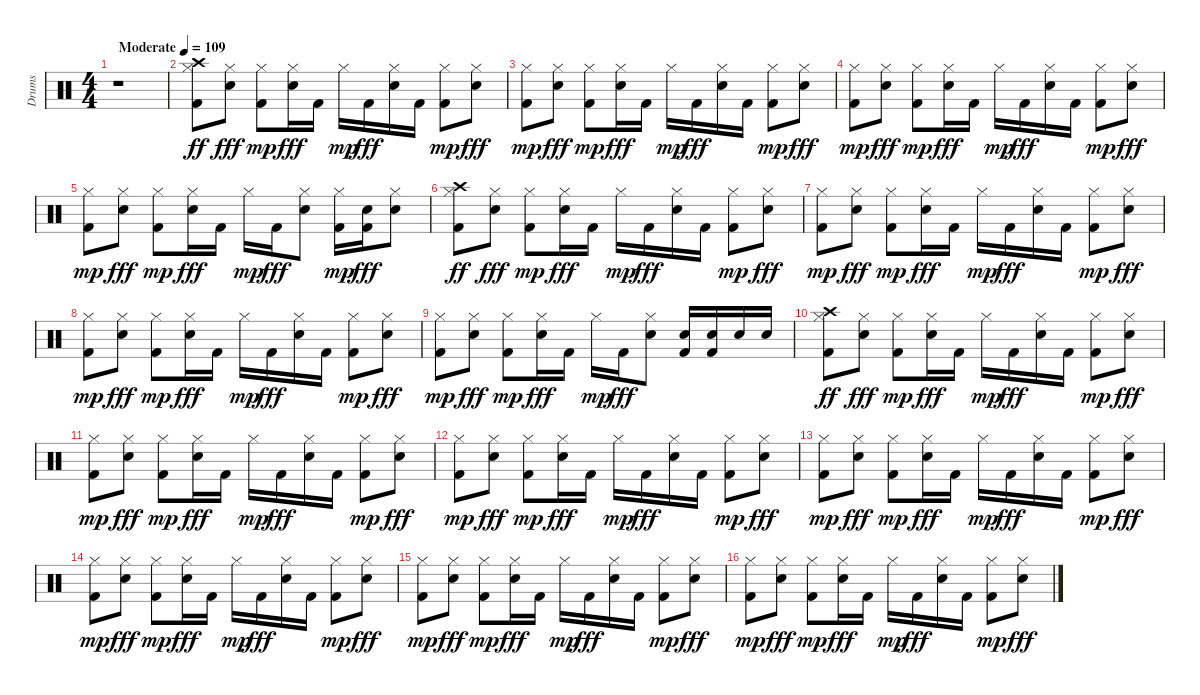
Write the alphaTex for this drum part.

\track ("Drums" "Drums") {instrument percussion}
\staff {score}
\articulation defaults
\ts (4 4)
\tempo (109 "Moderate")
\clef neutral
\ks c
r.1{dy ff} |
("Kick (hit) 2" "Hi-Hat (closed)" "Crash high (hit)").8{volume 14} ("Snare (hit) 2" "Hi-Hat (closed)").8{dy fff} ("Kick (hit) 2" "Hi-Hat (closed)").8{dy mp} ("Snare (hit) 2" "Hi-Hat (closed)").16{dy fff} "Kick (hit) 2".16 "Hi-Hat (closed)".16{dy mp} "Kick (hit) 2".16{dy fff} ("Snare (hit) 2" "Hi-Hat (closed)").16 "Kick (hit) 2".16 ("Kick (hit) 2" "Hi-Hat (closed)").8{dy mp} ("Snare (hit) 2" "Hi-Hat (closed)").8{dy fff} |
("Kick (hit) 2" "Hi-Hat (closed)").8{dy mp} ("Snare (hit) 2" "Hi-Hat (closed)").8{dy fff} ("Kick (hit) 2" "Hi-Hat (closed)").8{dy mp} ("Snare (hit) 2" "Hi-Hat (closed)").16{dy fff} "Kick (hit) 2".16 "Hi-Hat (closed)".16{dy mp} "Kick (hit) 2".16{dy fff} ("Snare (hit) 2" "Hi-Hat (closed)").16 "Kick (hit) 2".16 ("Kick (hit) 2" "Hi-Hat (closed)").8{dy mp} ("Snare (hit) 2" "Hi-Hat (closed)").8{dy fff} |
("Kick (hit) 2" "Hi-Hat (closed)").8{dy mp} ("Snare (hit) 2" "Hi-Hat (closed)").8{dy fff} ("Kick (hit) 2" "Hi-Hat (closed)").8{dy mp} ("Snare (hit) 2" "Hi-Hat (closed)").16{dy fff} "Kick (hit) 2".16 "Hi-Hat (closed)".16{dy mp} "Kick (hit) 2".16{dy fff} ("Snare (hit) 2" "Hi-Hat (closed)").16 "Kick (hit) 2".16 ("Kick (hit) 2" "Hi-Hat (closed)").8{dy mp} ("Snare (hit) 2" "Hi-Hat (closed)").8{dy fff} |
("Kick (hit) 2" "Hi-Hat (closed)").8{dy mp} ("Snare (hit) 2" "Hi-Hat (closed)").8{dy fff} ("Kick (hit) 2" "Hi-Hat (closed)").8{dy mp} ("Snare (hit) 2" "Hi-Hat (closed)").16{dy fff} "Kick (hit) 2".16 "Hi-Hat (closed)".16{dy mp} "Kick (hit) 2".16{dy fff} ("Snare (hit) 2" "Hi-Hat (closed)").8 ("Kick (hit) 2" "Hi-Hat (closed)").16{dy mp} ("Snare (hit) 2" "Kick (hit) 2").16{dy fff} ("Snare (hit) 2" "Hi-Hat (closed)").8 |
("Kick (hit) 2" "Hi-Hat (closed)" "Crash high (hit)").8{dy ff} ("Snare (hit) 2" "Hi-Hat (closed)").8{dy fff} ("Kick (hit) 2" "Hi-Hat (closed)").8{dy mp} ("Snare (hit) 2" "Hi-Hat (closed)").16{dy fff} "Kick (hit) 2".16 "Hi-Hat (closed)".16{dy mp} "Kick (hit) 2".16{dy fff} ("Snare (hit) 2" "Hi-Hat (closed)").16 "Kick (hit) 2".16 ("Kick (hit) 2" "Hi-Hat (closed)").8{dy mp} ("Snare (hit) 2" "Hi-Hat (closed)").8{dy fff} |
("Kick (hit) 2" "Hi-Hat (closed)").8{dy mp} ("Snare (hit) 2" "Hi-Hat (closed)").8{dy fff} ("Kick (hit) 2" "Hi-Hat (closed)").8{dy mp} ("Snare (hit) 2" "Hi-Hat (closed)").16{dy fff} "Kick (hit) 2".16 "Hi-Hat (closed)".16{dy mp} "Kick (hit) 2".16{dy fff} ("Snare (hit) 2" "Hi-Hat (closed)").16 "Kick (hit) 2".16 ("Kick (hit) 2" "Hi-Hat (closed)").8{dy mp} ("Snare (hit) 2" "Hi-Hat (closed)").8{dy fff} |
("Kick (hit) 2" "Hi-Hat (closed)").8{dy mp} ("Snare (hit) 2" "Hi-Hat (closed)").8{dy fff} ("Kick (hit) 2" "Hi-Hat (closed)").8{dy mp} ("Snare (hit) 2" "Hi-Hat (closed)").16{dy fff} "Kick (hit) 2".16 "Hi-Hat (closed)".16{dy mp} "Kick (hit) 2".16{dy fff} ("Snare (hit) 2" "Hi-Hat (closed)").16 "Kick (hit) 2".16 ("Kick (hit) 2" "Hi-Hat (closed)").8{dy mp} ("Snare (hit) 2" "Hi-Hat (closed)").8{dy fff} |
("Kick (hit) 2" "Hi-Hat (closed)").8{dy mp} ("Snare (hit) 2" "Hi-Hat (closed)").8{dy fff} ("Kick (hit) 2" "Hi-Hat (closed)").8{dy mp} ("Snare (hit) 2" "Hi-Hat (closed)").16{dy fff} "Kick (hit) 2".16 "Hi-Hat (closed)".16{dy mp} "Kick (hit) 2".16{dy fff} ("Snare (hit) 2" "Hi-Hat (closed)").8 ("Snare (hit) 2" "Kick (hit) 2").16 ("Snare (hit) 2" "Kick (hit) 2").16 "Snare (hit) 2".16 "Snare (hit) 2".16 |
("Kick (hit) 2" "Hi-Hat (closed)" "Crash high (hit)").8{dy ff} ("Snare (hit) 2" "Hi-Hat (closed)").8{dy fff} ("Kick (hit) 2" "Hi-Hat (closed)").8{dy mp} ("Snare (hit) 2" "Hi-Hat (closed)").16{dy fff} "Kick (hit) 2".16 "Hi-Hat (closed)".16{dy mp} "Kick (hit) 2".16{dy fff} ("Snare (hit) 2" "Hi-Hat (closed)").16 "Kick (hit) 2".16 ("Kick (hit) 2" "Hi-Hat (closed)").8{dy mp} ("Snare (hit) 2" "Hi-Hat (closed)").8{dy fff} |
("Kick (hit) 2" "Hi-Hat (closed)").8{dy mp} ("Snare (hit) 2" "Hi-Hat (closed)").8{dy fff} ("Kick (hit) 2" "Hi-Hat (closed)").8{dy mp} ("Snare (hit) 2" "Hi-Hat (closed)").16{dy fff} "Kick (hit) 2".16 "Hi-Hat (closed)".16{dy mp} "Kick (hit) 2".16{dy fff} ("Snare (hit) 2" "Hi-Hat (closed)").16 "Kick (hit) 2".16 ("Kick (hit) 2" "Hi-Hat (closed)").8{dy mp} ("Snare (hit) 2" "Hi-Hat (closed)").8{dy fff} |
("Kick (hit) 2" "Hi-Hat (closed)").8{dy mp} ("Snare (hit) 2" "Hi-Hat (closed)").8{dy fff} ("Kick (hit) 2" "Hi-Hat (closed)").8{dy mp} ("Snare (hit) 2" "Hi-Hat (closed)").16{dy fff} "Kick (hit) 2".16 "Hi-Hat (closed)".16{dy mp} "Kick (hit) 2".16{dy fff} ("Snare (hit) 2" "Hi-Hat (closed)").16 "Kick (hit) 2".16 ("Kick (hit) 2" "Hi-Hat (closed)").8{dy mp} ("Snare (hit) 2" "Hi-Hat (closed)").8{dy fff} |
("Kick (hit) 2" "Hi-Hat (closed)").8{dy mp} ("Snare (hit) 2" "Hi-Hat (closed)").8{dy fff} ("Kick (hit) 2" "Hi-Hat (closed)").8{dy mp} ("Snare (hit) 2" "Hi-Hat (closed)").16{dy fff} "Kick (hit) 2".16 "Hi-Hat (closed)".16{dy mp} "Kick (hit) 2".16{dy fff} ("Snare (hit) 2" "Hi-Hat (closed)").16 "Kick (hit) 2".16 ("Kick (hit) 2" "Hi-Hat (closed)").8{dy mp} ("Snare (hit) 2" "Hi-Hat (closed)").8{dy fff} |
("Kick (hit) 2" "Hi-Hat (closed)").8{dy mp} ("Snare (hit) 2" "Hi-Hat (closed)").8{dy fff} ("Kick (hit) 2" "Hi-Hat (closed)").8{dy mp} ("Snare (hit) 2" "Hi-Hat (closed)").16{dy fff} "Kick (hit) 2".16 "Hi-Hat (closed)".16{dy mp} "Kick (hit) 2".16{dy fff} ("Snare (hit) 2" "Hi-Hat (closed)").16 "Kick (hit) 2".16 ("Kick (hit) 2" "Hi-Hat (closed)").8{dy mp} ("Snare (hit) 2" "Hi-Hat (closed)").8{dy fff} |
("Kick (hit) 2" "Hi-Hat (closed)").8{dy mp} ("Snare (hit) 2" "Hi-Hat (closed)").8{dy fff} ("Kick (hit) 2" "Hi-Hat (closed)").8{dy mp} ("Snare (hit) 2" "Hi-Hat (closed)").16{dy fff} "Kick (hit) 2".16 "Hi-Hat (closed)".16{dy mp} "Kick (hit) 2".16{dy fff} ("Snare (hit) 2" "Hi-Hat (closed)").16 "Kick (hit) 2".16 ("Kick (hit) 2" "Hi-Hat (closed)").8{dy mp} ("Snare (hit) 2" "Hi-Hat (closed)").8{dy fff} |
("Kick (hit) 2" "Hi-Hat (closed)").8{dy mp} ("Snare (hit) 2" "Hi-Hat (closed)").8{dy fff} ("Kick (hit) 2" "Hi-Hat (closed)").8{dy mp} ("Snare (hit) 2" "Hi-Hat (closed)").16{dy fff} "Kick (hit) 2".16 "Hi-Hat (closed)".16{dy mp} "Kick (hit) 2".16{dy fff} ("Snare (hit) 2" "Hi-Hat (closed)").16 "Kick (hit) 2".16 ("Kick (hit) 2" "Hi-Hat (closed)").8{dy mp} ("Snare (hit) 2" "Hi-Hat (closed)").8{dy fff}
